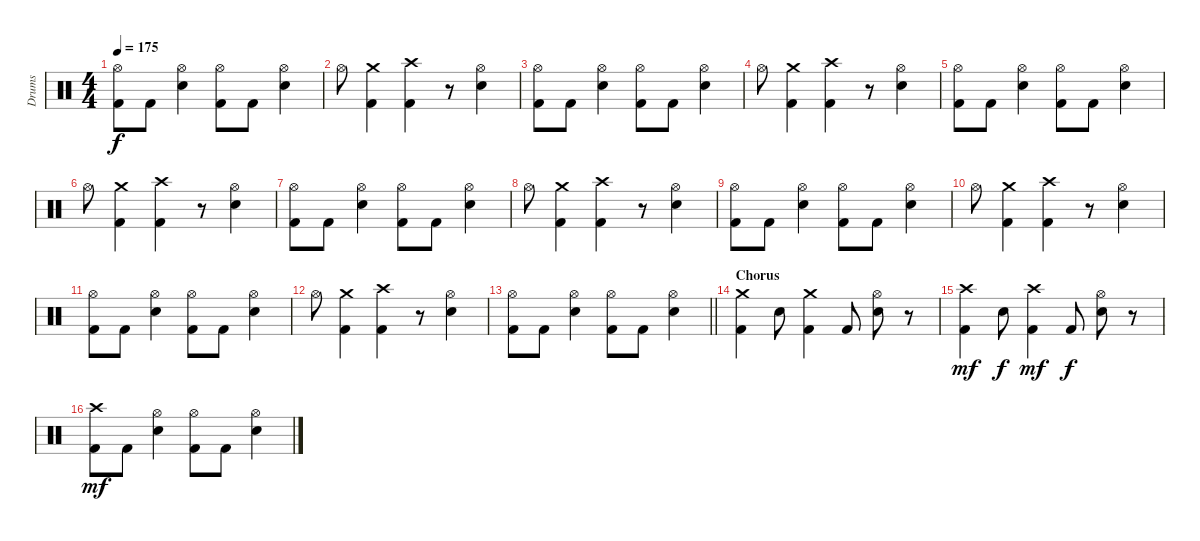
\track ("Drums" "Drums") {instrument percussion}
\staff {score}
\articulation defaults
\ts (4 4)
\tempo 175
\clef neutral
\ks c
("Hi-Hat (open)" "Kick (hit) 2").8{dy f} "Kick (hit) 2".8 ("Hi-Hat (open)" "Electric Snare (hit)").4 ("Hi-Hat (open)" "Kick (hit) 2").8 "Kick (hit) 2".8 ("Hi-Hat (open)" "Electric Snare (hit)").4 |
"Hi-Hat (open)".8 ("Crash medium (hit)" "Kick (hit) 2").4 ("Crash high (hit)" "Kick (hit) 2").4 r.8 ("Hi-Hat (open)" "Electric Snare (hit)").4 |
("Hi-Hat (open)" "Kick (hit) 2").8 "Kick (hit) 2".8 ("Hi-Hat (open)" "Electric Snare (hit)").4 ("Hi-Hat (open)" "Kick (hit) 2").8 "Kick (hit) 2".8 ("Hi-Hat (open)" "Electric Snare (hit)").4 |
"Hi-Hat (open)".8 ("Crash medium (hit)" "Kick (hit) 2").4 ("Crash high (hit)" "Kick (hit) 2").4 r.8 ("Hi-Hat (open)" "Electric Snare (hit)").4 |
("Hi-Hat (open)" "Kick (hit) 2").8 "Kick (hit) 2".8 ("Hi-Hat (open)" "Electric Snare (hit)").4 ("Hi-Hat (open)" "Kick (hit) 2").8 "Kick (hit) 2".8 ("Hi-Hat (open)" "Electric Snare (hit)").4 |
"Hi-Hat (open)".8 ("Crash medium (hit)" "Kick (hit) 2").4 ("Crash high (hit)" "Kick (hit) 2").4 r.8 ("Hi-Hat (open)" "Electric Snare (hit)").4 |
("Hi-Hat (open)" "Kick (hit) 2").8 "Kick (hit) 2".8 ("Hi-Hat (open)" "Electric Snare (hit)").4 ("Hi-Hat (open)" "Kick (hit) 2").8 "Kick (hit) 2".8 ("Hi-Hat (open)" "Electric Snare (hit)").4 |
"Hi-Hat (open)".8 ("Crash medium (hit)" "Kick (hit) 2").4 ("Crash high (hit)" "Kick (hit) 2").4 r.8 ("Hi-Hat (open)" "Electric Snare (hit)").4 |
("Hi-Hat (open)" "Kick (hit) 2").8 "Kick (hit) 2".8 ("Hi-Hat (open)" "Electric Snare (hit)").4 ("Hi-Hat (open)" "Kick (hit) 2").8 "Kick (hit) 2".8 ("Hi-Hat (open)" "Electric Snare (hit)").4 |
"Hi-Hat (open)".8 ("Crash medium (hit)" "Kick (hit) 2").4 ("Crash high (hit)" "Kick (hit) 2").4 r.8 ("Hi-Hat (open)" "Electric Snare (hit)").4 |
("Hi-Hat (open)" "Kick (hit) 2").8 "Kick (hit) 2".8 ("Hi-Hat (open)" "Electric Snare (hit)").4 ("Hi-Hat (open)" "Kick (hit) 2").8 "Kick (hit) 2".8 ("Hi-Hat (open)" "Electric Snare (hit)").4 |
"Hi-Hat (open)".8 ("Crash medium (hit)" "Kick (hit) 2").4 ("Crash high (hit)" "Kick (hit) 2").4 r.8 ("Hi-Hat (open)" "Electric Snare (hit)").4 |
\barLineRight lightlight
("Hi-Hat (open)" "Kick (hit) 2").8 "Kick (hit) 2".8 ("Hi-Hat (open)" "Electric Snare (hit)").4 ("Hi-Hat (open)" "Kick (hit) 2").8 "Kick (hit) 2".8 ("Hi-Hat (open)" "Electric Snare (hit)").4 |
\section ("" "Chorus")
("Crash medium (hit)" "Kick (hit) 2").4 "Electric Snare (hit)".8 ("Crash medium (hit)" "Kick (hit) 2").4 "Kick (hit) 2".8 ("Hi-Hat (open)" "Electric Snare (hit)").8 r.8 |
("Crash high (hit)" "Kick (hit) 2").4{dy mf} "Electric Snare (hit)".8{dy f} ("Crash high (hit)" "Kick (hit) 2").4{dy mf} "Kick (hit) 2".8{dy f} ("Hi-Hat (open)" "Electric Snare (hit)").8 r.8 |
("Crash high (hit)" "Kick (hit) 2").8{dy mf} "Kick (hit) 2".8 ("Hi-Hat (open)" "Electric Snare (hit)").4 ("Hi-Hat (open)" "Kick (hit) 2").8 "Kick (hit) 2".8 ("Hi-Hat (open)" "Electric Snare (hit)").4
